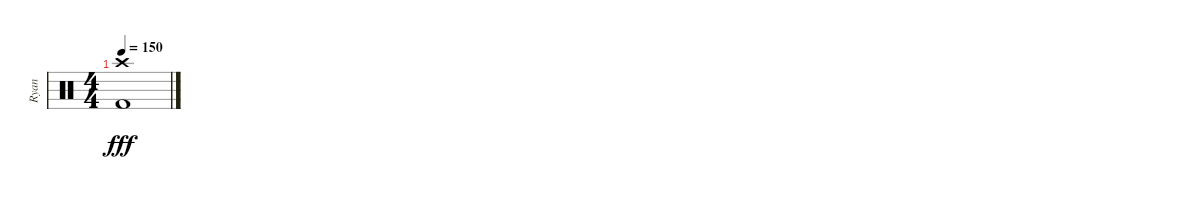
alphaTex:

\track ("Ryan" "Ryan") {instrument percussion}
\staff {score}
\articulation defaults
\ts (4 4)
\tempo 150
\clef neutral
\ks c
("Crash high (hit)" "Kick (hit) 2").1{dy fff}
